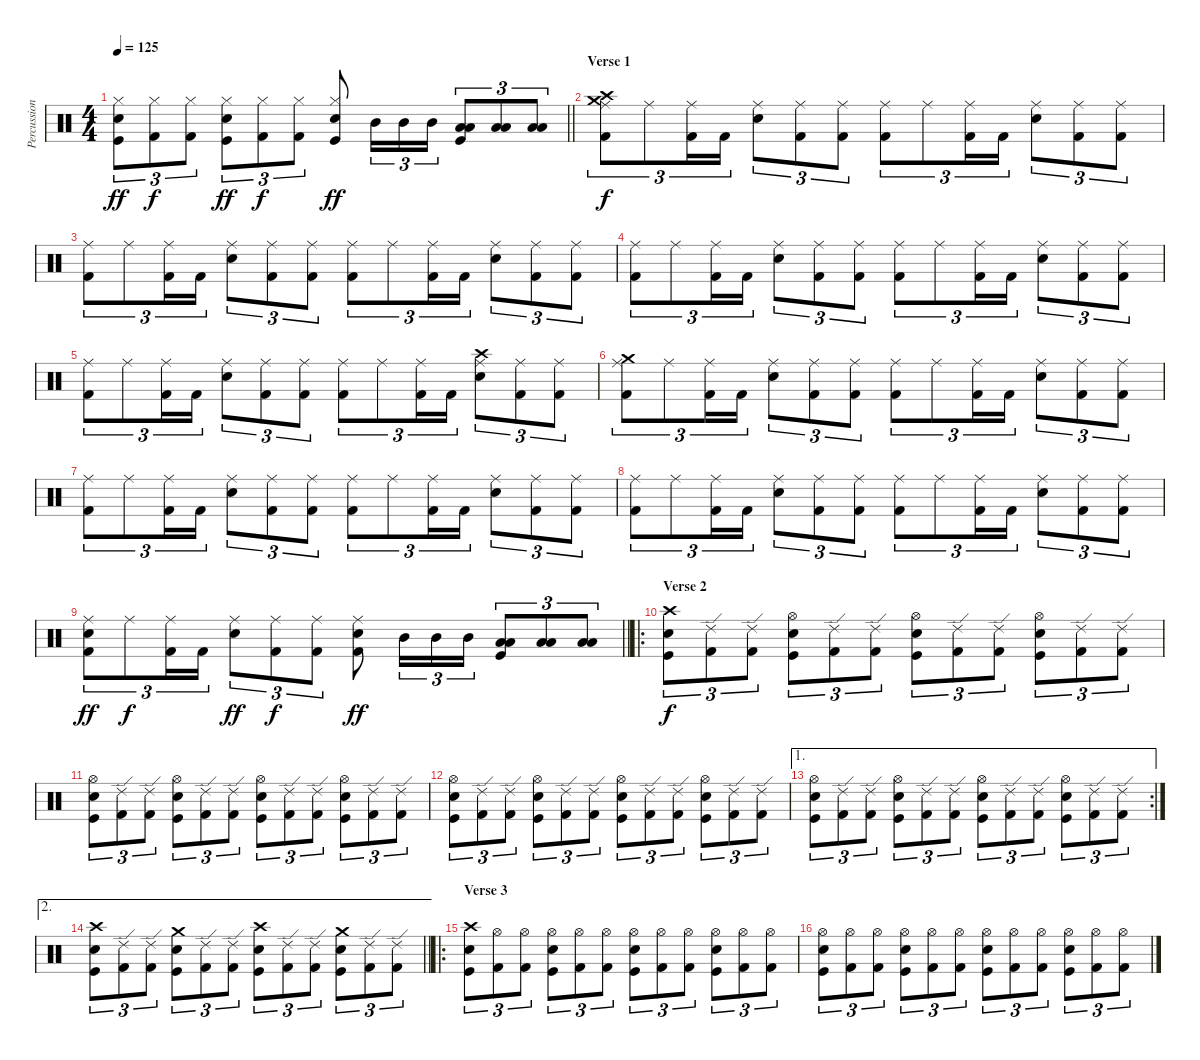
\track ("Percussion" "Percussion") {instrument percussion}
\staff {score}
\articulation defaults
\ts (4 4)
\tempo 125
\clef neutral
\barLineRight lightlight
\ks c
("Snare (hit) 2" "Hi-Hat (closed)" "Kick (hit)").8{tu (3 2) dy ff} ("Hi-Hat (closed)" "Kick (hit) 2").8{tu (3 2) dy f} ("Hi-Hat (closed)" "Kick (hit) 2").8{tu (3 2)} ("Hi-Hat (closed)" "Snare (hit) 2" "Kick (hit)").8{tu (3 2) dy ff} ("Hi-Hat (closed)" "Kick (hit) 2").8{tu (3 2) dy f} ("Hi-Hat (closed)" "Kick (hit) 2").8{tu (3 2)} ("Snare (hit) 2" "Hi-Hat (closed)" "Kick (hit)").8{dy ff} "Mid Tom (hit)".16{tu (3 2)} "Mid Tom (hit)".16{tu (3 2)} "Mid Tom (hit)".16{tu (3 2)} ("Low Tom (hit)" "Low Tom (hit)" "Kick (hit)").8{tu (3 2)} ("Low Tom (hit)" "Low Tom (hit)").8{tu (3 2)} ("Low Tom (hit)" "Low Tom (hit)").8{tu (3 2)} |
\section ("" "Verse 1")
("Ride (middle)" "Kick (hit) 2" "Crash high (hit)" "Crash medium (hit)").8{tu (3 2) dy f} "Ride (middle)".8{tu (3 2)} ("Kick (hit) 2" "Ride (middle)").16{tu (3 2)} "Kick (hit) 2".16{tu (3 2)} ("Snare (hit) 2" "Ride (middle)").8{tu (3 2)} ("Ride (middle)" "Kick (hit) 2").8{tu (3 2)} ("Ride (middle)" "Kick (hit) 2").8{tu (3 2)} ("Ride (middle)" "Kick (hit) 2").8{tu (3 2)} "Ride (middle)".8{tu (3 2)} ("Kick (hit) 2" "Ride (middle)").16{tu (3 2)} "Kick (hit) 2".16{tu (3 2)} ("Snare (hit) 2" "Ride (middle)").8{tu (3 2)} ("Ride (middle)" "Kick (hit) 2").8{tu (3 2)} ("Ride (middle)" "Kick (hit) 2").8{tu (3 2)} |
("Ride (middle)" "Kick (hit) 2").8{tu (3 2)} "Ride (middle)".8{tu (3 2)} ("Kick (hit) 2" "Ride (middle)").16{tu (3 2)} "Kick (hit) 2".16{tu (3 2)} ("Snare (hit) 2" "Ride (middle)").8{tu (3 2)} ("Ride (middle)" "Kick (hit) 2").8{tu (3 2)} ("Ride (middle)" "Kick (hit) 2").8{tu (3 2)} ("Ride (middle)" "Kick (hit) 2").8{tu (3 2)} "Ride (middle)".8{tu (3 2)} ("Kick (hit) 2" "Ride (middle)").16{tu (3 2)} "Kick (hit) 2".16{tu (3 2)} ("Snare (hit) 2" "Ride (middle)").8{tu (3 2)} ("Ride (middle)" "Kick (hit) 2").8{tu (3 2)} ("Ride (middle)" "Kick (hit) 2").8{tu (3 2)} |
("Ride (middle)" "Kick (hit) 2").8{tu (3 2)} "Ride (middle)".8{tu (3 2)} ("Kick (hit) 2" "Ride (middle)").16{tu (3 2)} "Kick (hit) 2".16{tu (3 2)} ("Snare (hit) 2" "Ride (middle)").8{tu (3 2)} ("Ride (middle)" "Kick (hit) 2").8{tu (3 2)} ("Ride (middle)" "Kick (hit) 2").8{tu (3 2)} ("Ride (middle)" "Kick (hit) 2").8{tu (3 2)} "Ride (middle)".8{tu (3 2)} ("Kick (hit) 2" "Ride (middle)").16{tu (3 2)} "Kick (hit) 2".16{tu (3 2)} ("Snare (hit) 2" "Ride (middle)").8{tu (3 2)} ("Ride (middle)" "Kick (hit) 2").8{tu (3 2)} ("Ride (middle)" "Kick (hit) 2").8{tu (3 2)} |
("Ride (middle)" "Kick (hit) 2").8{tu (3 2)} "Ride (middle)".8{tu (3 2)} ("Kick (hit) 2" "Ride (middle)").16{tu (3 2)} "Kick (hit) 2".16{tu (3 2)} ("Snare (hit) 2" "Ride (middle)").8{tu (3 2)} ("Ride (middle)" "Kick (hit) 2").8{tu (3 2)} ("Ride (middle)" "Kick (hit) 2").8{tu (3 2)} ("Ride (middle)" "Kick (hit) 2").8{tu (3 2)} "Ride (middle)".8{tu (3 2)} ("Kick (hit) 2" "Ride (middle)").16{tu (3 2)} "Kick (hit) 2".16{tu (3 2)} ("Snare (hit) 2" "Ride (middle)" "Crash high (hit)").8{tu (3 2)} ("Ride (middle)" "Kick (hit) 2").8{tu (3 2)} ("Ride (middle)" "Kick (hit) 2").8{tu (3 2)} |
("Ride (middle)" "Kick (hit) 2" "Crash medium (hit)").8{tu (3 2)} "Ride (middle)".8{tu (3 2)} ("Kick (hit) 2" "Ride (middle)").16{tu (3 2)} "Kick (hit) 2".16{tu (3 2)} ("Snare (hit) 2" "Ride (middle)").8{tu (3 2)} ("Ride (middle)" "Kick (hit) 2").8{tu (3 2)} ("Ride (middle)" "Kick (hit) 2").8{tu (3 2)} ("Ride (middle)" "Kick (hit) 2").8{tu (3 2)} "Ride (middle)".8{tu (3 2)} ("Kick (hit) 2" "Ride (middle)").16{tu (3 2)} "Kick (hit) 2".16{tu (3 2)} ("Snare (hit) 2" "Ride (middle)").8{tu (3 2)} ("Ride (middle)" "Kick (hit) 2").8{tu (3 2)} ("Ride (middle)" "Kick (hit) 2").8{tu (3 2)} |
("Ride (middle)" "Kick (hit) 2").8{tu (3 2)} "Ride (middle)".8{tu (3 2)} ("Kick (hit) 2" "Ride (middle)").16{tu (3 2)} "Kick (hit) 2".16{tu (3 2)} ("Snare (hit) 2" "Ride (middle)").8{tu (3 2)} ("Ride (middle)" "Kick (hit) 2").8{tu (3 2)} ("Ride (middle)" "Kick (hit) 2").8{tu (3 2)} ("Ride (middle)" "Kick (hit) 2").8{tu (3 2)} "Ride (middle)".8{tu (3 2)} ("Kick (hit) 2" "Ride (middle)").16{tu (3 2)} "Kick (hit) 2".16{tu (3 2)} ("Snare (hit) 2" "Ride (middle)").8{tu (3 2)} ("Ride (middle)" "Kick (hit) 2").8{tu (3 2)} ("Ride (middle)" "Kick (hit) 2").8{tu (3 2)} |
("Ride (middle)" "Kick (hit) 2").8{tu (3 2)} "Ride (middle)".8{tu (3 2)} ("Kick (hit) 2" "Ride (middle)").16{tu (3 2)} "Kick (hit) 2".16{tu (3 2)} ("Snare (hit) 2" "Ride (middle)").8{tu (3 2)} ("Ride (middle)" "Kick (hit) 2").8{tu (3 2)} ("Ride (middle)" "Kick (hit) 2").8{tu (3 2)} ("Ride (middle)" "Kick (hit) 2").8{tu (3 2)} "Ride (middle)".8{tu (3 2)} ("Kick (hit) 2" "Ride (middle)").16{tu (3 2)} "Kick (hit) 2".16{tu (3 2)} ("Snare (hit) 2" "Ride (middle)").8{tu (3 2)} ("Ride (middle)" "Kick (hit) 2").8{tu (3 2)} ("Ride (middle)" "Kick (hit) 2").8{tu (3 2)} |
\barLineRight lightlight
("Ride (middle)" "Kick (hit) 2" "Snare (hit) 2").8{tu (3 2) dy ff} "Ride (middle)".8{tu (3 2) dy f} ("Kick (hit) 2" "Ride (middle)").16{tu (3 2)} "Kick (hit) 2".16{tu (3 2)} ("Snare (hit) 2" "Ride (middle)").8{tu (3 2) dy ff} ("Ride (middle)" "Kick (hit) 2").8{tu (3 2) dy f} ("Ride (middle)" "Kick (hit) 2").8{tu (3 2)} ("Ride (middle)" "Kick (hit) 2" "Snare (hit) 2").8{dy ff} "Mid Tom (hit)".16{tu (3 2)} "Mid Tom (hit)".16{tu (3 2)} "Mid Tom (hit)".16{tu (3 2)} ("Low Tom (hit)" "Low Tom (hit)" "Kick (hit)").8{tu (3 2)} ("Low Tom (hit)" "Low Tom (hit)").8{tu (3 2)} ("Low Tom (hit)" "Low Tom (hit)").8{tu (3 2)} |
\ro
\section ("" "Verse 2")
("Snare (hit) 2" "Kick (hit)" "Crash high (hit)").8{tu (3 2) dy f} ("Kick (hit) 2" "Ride (edge) 2").8{tu (3 2)} ("Kick (hit) 2" "Ride (edge) 2").8{tu (3 2)} ("Snare (hit) 2" "Kick (hit)" "Hi-Hat (open)").8{tu (3 2)} ("Kick (hit) 2" "Ride (edge) 2").8{tu (3 2)} ("Kick (hit) 2" "Ride (edge) 2").8{tu (3 2)} ("Snare (hit) 2" "Kick (hit)" "Hi-Hat (open)").8{tu (3 2)} ("Kick (hit) 2" "Ride (edge) 2").8{tu (3 2)} ("Kick (hit) 2" "Ride (edge) 2").8{tu (3 2)} ("Snare (hit) 2" "Kick (hit)" "Hi-Hat (open)").8{tu (3 2)} ("Kick (hit) 2" "Ride (edge) 2").8{tu (3 2)} ("Kick (hit) 2" "Ride (edge) 2").8{tu (3 2)} |
("Snare (hit) 2" "Kick (hit)" "Hi-Hat (open)").8{tu (3 2)} ("Kick (hit) 2" "Ride (edge) 2").8{tu (3 2)} ("Kick (hit) 2" "Ride (edge) 2").8{tu (3 2)} ("Snare (hit) 2" "Kick (hit)" "Hi-Hat (open)").8{tu (3 2)} ("Kick (hit) 2" "Ride (edge) 2").8{tu (3 2)} ("Kick (hit) 2" "Ride (edge) 2").8{tu (3 2)} ("Snare (hit) 2" "Kick (hit)" "Hi-Hat (open)").8{tu (3 2)} ("Kick (hit) 2" "Ride (edge) 2").8{tu (3 2)} ("Kick (hit) 2" "Ride (edge) 2").8{tu (3 2)} ("Snare (hit) 2" "Kick (hit)" "Hi-Hat (open)").8{tu (3 2)} ("Kick (hit) 2" "Ride (edge) 2").8{tu (3 2)} ("Kick (hit) 2" "Ride (edge) 2").8{tu (3 2)} |
("Snare (hit) 2" "Kick (hit)" "Hi-Hat (open)").8{tu (3 2)} ("Kick (hit) 2" "Ride (edge) 2").8{tu (3 2)} ("Kick (hit) 2" "Ride (edge) 2").8{tu (3 2)} ("Snare (hit) 2" "Kick (hit)" "Hi-Hat (open)").8{tu (3 2)} ("Kick (hit) 2" "Ride (edge) 2").8{tu (3 2)} ("Kick (hit) 2" "Ride (edge) 2").8{tu (3 2)} ("Snare (hit) 2" "Kick (hit)" "Hi-Hat (open)").8{tu (3 2)} ("Kick (hit) 2" "Ride (edge) 2").8{tu (3 2)} ("Kick (hit) 2" "Ride (edge) 2").8{tu (3 2)} ("Snare (hit) 2" "Kick (hit)" "Hi-Hat (open)").8{tu (3 2)} ("Kick (hit) 2" "Ride (edge) 2").8{tu (3 2)} ("Kick (hit) 2" "Ride (edge) 2").8{tu (3 2)} |
\ae 1
\rc 2
("Snare (hit) 2" "Kick (hit)" "Hi-Hat (open)").8{tu (3 2)} ("Kick (hit) 2" "Ride (edge) 2").8{tu (3 2)} ("Kick (hit) 2" "Ride (edge) 2").8{tu (3 2)} ("Snare (hit) 2" "Kick (hit)" "Hi-Hat (open)").8{tu (3 2)} ("Kick (hit) 2" "Ride (edge) 2").8{tu (3 2)} ("Kick (hit) 2" "Ride (edge) 2").8{tu (3 2)} ("Snare (hit) 2" "Kick (hit)" "Hi-Hat (open)").8{tu (3 2)} ("Kick (hit) 2" "Ride (edge) 2").8{tu (3 2)} ("Kick (hit) 2" "Ride (edge) 2").8{tu (3 2)} ("Snare (hit) 2" "Kick (hit)" "Hi-Hat (open)").8{tu (3 2)} ("Kick (hit) 2" "Ride (edge) 2").8{tu (3 2)} ("Kick (hit) 2" "Ride (edge) 2").8{tu (3 2)} |
\ae 2
\barLineRight lightlight
("Snare (hit) 2" "Kick (hit)" "Crash high (hit)").8{tu (3 2)} ("Kick (hit) 2" "Ride (edge) 2").8{tu (3 2)} ("Kick (hit) 2" "Ride (edge) 2").8{tu (3 2)} ("Snare (hit) 2" "Kick (hit)" "Crash medium (hit)").8{tu (3 2)} ("Kick (hit) 2" "Ride (edge) 2").8{tu (3 2)} ("Kick (hit) 2" "Ride (edge) 2").8{tu (3 2)} ("Snare (hit) 2" "Kick (hit)" "Crash high (hit)").8{tu (3 2)} ("Kick (hit) 2" "Ride (edge) 2").8{tu (3 2)} ("Kick (hit) 2" "Ride (edge) 2").8{tu (3 2)} ("Snare (hit) 2" "Kick (hit)" "Crash medium (hit)").8{tu (3 2)} ("Kick (hit) 2" "Ride (edge) 2").8{tu (3 2)} ("Kick (hit) 2" "Ride (edge) 2").8{tu (3 2)} |
\ro
\section ("" "Verse 3")
("Snare (hit) 2" "Kick (hit)" "Crash high (hit)").8{tu (3 2)} ("Kick (hit) 2" "Hi-Hat (open)").8{tu (3 2)} ("Kick (hit) 2" "Hi-Hat (open)").8{tu (3 2)} ("Snare (hit) 2" "Kick (hit)" "Hi-Hat (open)").8{tu (3 2)} ("Kick (hit) 2" "Hi-Hat (open)").8{tu (3 2)} ("Kick (hit) 2" "Hi-Hat (open)").8{tu (3 2)} ("Snare (hit) 2" "Kick (hit)" "Hi-Hat (open)").8{tu (3 2)} ("Kick (hit) 2" "Hi-Hat (open)").8{tu (3 2)} ("Kick (hit) 2" "Hi-Hat (open)").8{tu (3 2)} ("Snare (hit) 2" "Kick (hit)" "Hi-Hat (open)").8{tu (3 2)} ("Kick (hit) 2" "Hi-Hat (open)").8{tu (3 2)} ("Kick (hit) 2" "Hi-Hat (open)").8{tu (3 2)} |
("Snare (hit) 2" "Kick (hit)" "Hi-Hat (open)").8{tu (3 2)} ("Kick (hit) 2" "Hi-Hat (open)").8{tu (3 2)} ("Kick (hit) 2" "Hi-Hat (open)").8{tu (3 2)} ("Snare (hit) 2" "Kick (hit)" "Hi-Hat (open)").8{tu (3 2)} ("Kick (hit) 2" "Hi-Hat (open)").8{tu (3 2)} ("Kick (hit) 2" "Hi-Hat (open)").8{tu (3 2)} ("Snare (hit) 2" "Kick (hit)" "Hi-Hat (open)").8{tu (3 2)} ("Kick (hit) 2" "Hi-Hat (open)").8{tu (3 2)} ("Kick (hit) 2" "Hi-Hat (open)").8{tu (3 2)} ("Snare (hit) 2" "Kick (hit)" "Hi-Hat (open)").8{tu (3 2)} ("Kick (hit) 2" "Hi-Hat (open)").8{tu (3 2)} ("Kick (hit) 2" "Hi-Hat (open)").8{tu (3 2)}
